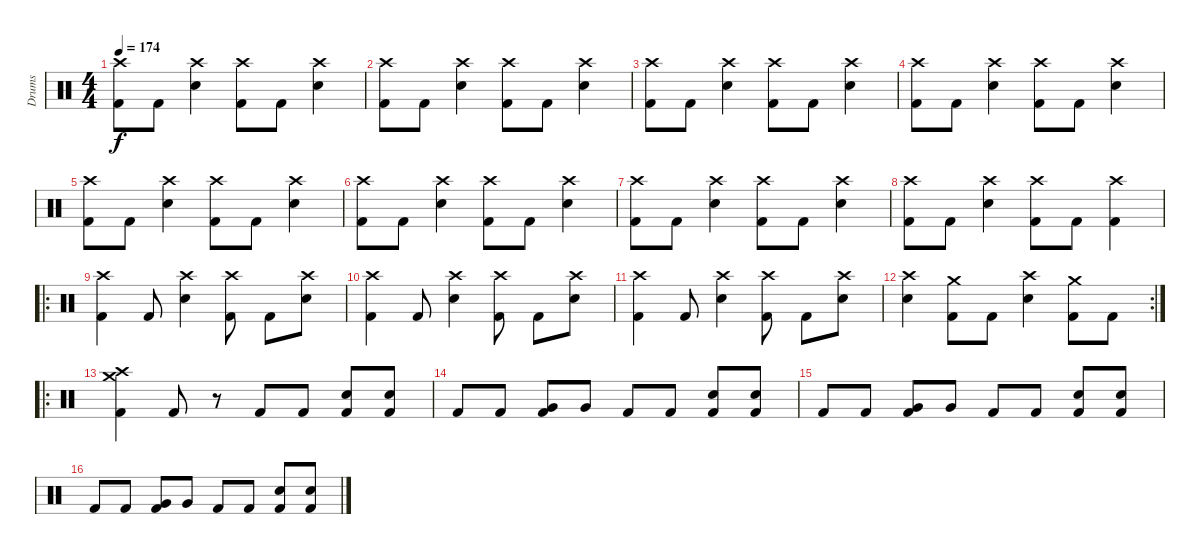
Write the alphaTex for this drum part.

\track ("Drums" "Drums") {instrument percussion}
\staff {score}
\articulation defaults
\ts (4 4)
\tempo 174
\clef neutral
\ks c
("Crash high (hit)" "Kick (hit) 2").8{dy f} "Kick (hit) 2".8 ("Crash high (hit)" "Snare (hit) 2").4 ("Crash high (hit)" "Kick (hit) 2").8 "Kick (hit) 2".8 ("Crash high (hit)" "Snare (hit) 2").4 |
("Crash high (hit)" "Kick (hit) 2").8 "Kick (hit) 2".8 ("Crash high (hit)" "Snare (hit) 2").4 ("Crash high (hit)" "Kick (hit) 2").8 "Kick (hit) 2".8 ("Crash high (hit)" "Snare (hit) 2").4 |
("Crash high (hit)" "Kick (hit) 2").8 "Kick (hit) 2".8 ("Crash high (hit)" "Snare (hit) 2").4 ("Crash high (hit)" "Kick (hit) 2").8 "Kick (hit) 2".8 ("Crash high (hit)" "Snare (hit) 2").4 |
("Crash high (hit)" "Kick (hit) 2").8 "Kick (hit) 2".8 ("Crash high (hit)" "Snare (hit) 2").4 ("Crash high (hit)" "Kick (hit) 2").8 "Kick (hit) 2".8 ("Crash high (hit)" "Snare (hit) 2").4 |
("Crash high (hit)" "Kick (hit) 2").8 "Kick (hit) 2".8 ("Crash high (hit)" "Snare (hit) 2").4 ("Crash high (hit)" "Kick (hit) 2").8 "Kick (hit) 2".8 ("Crash high (hit)" "Snare (hit) 2").4 |
("Crash high (hit)" "Kick (hit) 2").8 "Kick (hit) 2".8 ("Crash high (hit)" "Snare (hit) 2").4 ("Crash high (hit)" "Kick (hit) 2").8 "Kick (hit) 2".8 ("Crash high (hit)" "Snare (hit) 2").4 |
("Crash high (hit)" "Kick (hit) 2").8 "Kick (hit) 2".8 ("Crash high (hit)" "Snare (hit) 2").4 ("Crash high (hit)" "Kick (hit) 2").8 "Kick (hit) 2".8 ("Crash high (hit)" "Snare (hit) 2").4 |
("Crash high (hit)" "Kick (hit) 2").8 "Kick (hit) 2".8 ("Crash high (hit)" "Snare (hit) 2").4 ("Crash high (hit)" "Kick (hit) 2").8 "Kick (hit) 2".8 ("Crash high (hit)" "Kick (hit) 2").4 |
\ro
("Crash high (hit)" "Kick (hit) 2").4 "Kick (hit) 2".8 ("Crash high (hit)" "Snare (hit) 2").4 ("Crash high (hit)" "Kick (hit) 2").8 "Kick (hit) 2".8 ("Crash high (hit)" "Snare (hit) 2").8 |
("Crash high (hit)" "Kick (hit) 2").4 "Kick (hit) 2".8 ("Crash high (hit)" "Snare (hit) 2").4 ("Crash high (hit)" "Kick (hit) 2").8 "Kick (hit) 2".8 ("Crash high (hit)" "Snare (hit) 2").8 |
("Crash high (hit)" "Kick (hit) 2").4 "Kick (hit) 2".8 ("Crash high (hit)" "Snare (hit) 2").4 ("Crash high (hit)" "Kick (hit) 2").8 "Kick (hit) 2".8 ("Crash high (hit)" "Snare (hit) 2").8 |
\rc 2
("Crash high (hit)" "Snare (hit) 2").4 ("Crash medium (hit)" "Kick (hit) 2").8 "Kick (hit) 2".8 ("Crash high (hit)" "Snare (hit) 2").4 ("Crash medium (hit)" "Kick (hit) 2").8 "Kick (hit) 2".8 |
\ro
("Crash high (hit)" "Crash medium (hit)" "Kick (hit) 2").4 "Kick (hit) 2".8 r.8 "Kick (hit) 2".8 "Kick (hit) 2".8 ("Snare (hit) 2" "Kick (hit) 2").8 ("Snare (hit) 2" "Kick (hit) 2").8 |
"Kick (hit) 2".8 "Kick (hit) 2".8 ("Very Low Tom (hit)" "Kick (hit) 2").8 "Very Low Tom (hit)".8 "Kick (hit) 2".8 "Kick (hit) 2".8 ("Snare (hit) 2" "Kick (hit) 2").8 ("Snare (hit) 2" "Kick (hit) 2").8 |
"Kick (hit) 2".8 "Kick (hit) 2".8 ("Very Low Tom (hit)" "Kick (hit) 2").8 "Very Low Tom (hit)".8 "Kick (hit) 2".8 "Kick (hit) 2".8 ("Snare (hit) 2" "Kick (hit) 2").8 ("Snare (hit) 2" "Kick (hit) 2").8 |
"Kick (hit) 2".8 "Kick (hit) 2".8 ("Very Low Tom (hit)" "Kick (hit) 2").8 "Very Low Tom (hit)".8 "Kick (hit) 2".8 "Kick (hit) 2".8 ("Snare (hit) 2" "Kick (hit) 2").8 ("Snare (hit) 2" "Kick (hit) 2").8
